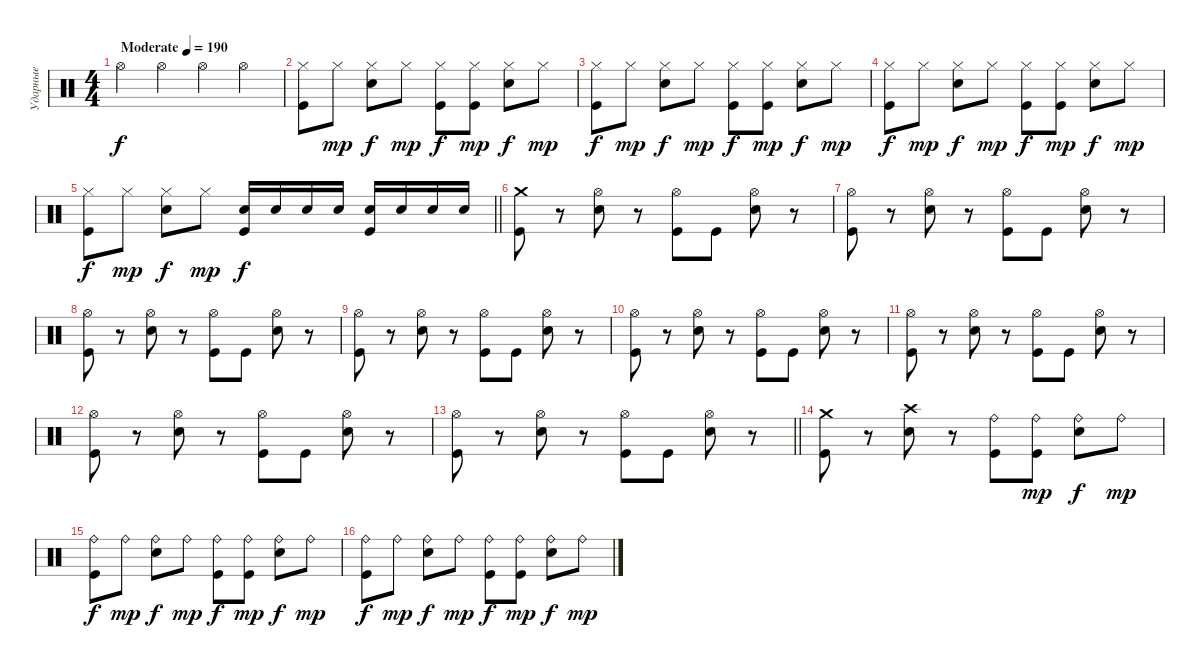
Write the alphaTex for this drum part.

\track ("Ударные" "Ударные") {instrument percussion}
\staff {score}
\articulation defaults
\ts (4 4)
\tempo (190 "Moderate")
\clef neutral
\ks c "Hi-Hat (open)".4{dy f} "Hi-Hat (open)".4 "Hi-Hat (open)".4 "Hi-Hat (open)".4
|
("Hi-Hat (closed)" "Kick (hit)").8 "Hi-Hat (closed)".8{dy mp} ("Hi-Hat (closed)" "Electric Snare (hit)").8{dy f} "Hi-Hat (closed)".8{dy mp} ("Hi-Hat (closed)" "Kick (hit)").8{dy f} ("Hi-Hat (closed)" "Kick (hit)").8{dy mp} ("Hi-Hat (closed)" "Electric Snare (hit)").8{dy f} "Hi-Hat (closed)".8{dy mp} |
("Hi-Hat (closed)" "Kick (hit)").8{dy f} "Hi-Hat (closed)".8{dy mp} ("Hi-Hat (closed)" "Electric Snare (hit)").8{dy f} "Hi-Hat (closed)".8{dy mp} ("Hi-Hat (closed)" "Kick (hit)").8{dy f} ("Hi-Hat (closed)" "Kick (hit)").8{dy mp} ("Hi-Hat (closed)" "Electric Snare (hit)").8{dy f} "Hi-Hat (closed)".8{dy mp} |
("Hi-Hat (closed)" "Kick (hit)").8{dy f} "Hi-Hat (closed)".8{dy mp} ("Hi-Hat (closed)" "Electric Snare (hit)").8{dy f} "Hi-Hat (closed)".8{dy mp} ("Hi-Hat (closed)" "Kick (hit)").8{dy f} ("Hi-Hat (closed)" "Kick (hit)").8{dy mp} ("Hi-Hat (closed)" "Electric Snare (hit)").8{dy f} "Hi-Hat (closed)".8{dy mp} |
\barLineRight lightlight
("Hi-Hat (closed)" "Kick (hit)").8{dy f} "Hi-Hat (closed)".8{dy mp} ("Hi-Hat (closed)" "Electric Snare (hit)").8{dy f} "Hi-Hat (closed)".8{dy mp} ("Electric Snare (hit)" "Kick (hit)").16{dy f} "Electric Snare (hit)".16 "Electric Snare (hit)".16 "Electric Snare (hit)".16 ("Electric Snare (hit)" "Kick (hit)").16 "Electric Snare (hit)".16 "Electric Snare (hit)".16 "Electric Snare (hit)".16 |
\section ("" " ")
("Crash medium (hit)" "Kick (hit)").8 r.8 ("Hi-Hat (open)" "Electric Snare (hit)").8 r.8 ("Hi-Hat (open)" "Kick (hit)").8 "Kick (hit)".8 ("Hi-Hat (open)" "Electric Snare (hit)").8 r.8 |
("Hi-Hat (open)" "Kick (hit)").8 r.8 ("Hi-Hat (open)" "Electric Snare (hit)").8 r.8 ("Hi-Hat (open)" "Kick (hit)").8 "Kick (hit)".8 ("Hi-Hat (open)" "Electric Snare (hit)").8 r.8 |
("Hi-Hat (open)" "Kick (hit)").8 r.8 ("Hi-Hat (open)" "Electric Snare (hit)").8 r.8 ("Hi-Hat (open)" "Kick (hit)").8 "Kick (hit)".8 ("Hi-Hat (open)" "Electric Snare (hit)").8 r.8 |
("Hi-Hat (open)" "Kick (hit)").8 r.8 ("Hi-Hat (open)" "Electric Snare (hit)").8 r.8 ("Hi-Hat (open)" "Kick (hit)").8 "Kick (hit)".8 ("Hi-Hat (open)" "Electric Snare (hit)").8 r.8 |
("Hi-Hat (open)" "Kick (hit)").8 r.8 ("Hi-Hat (open)" "Electric Snare (hit)").8 r.8 ("Hi-Hat (open)" "Kick (hit)").8 "Kick (hit)".8 ("Hi-Hat (open)" "Electric Snare (hit)").8 r.8 |
("Hi-Hat (open)" "Kick (hit)").8 r.8 ("Hi-Hat (open)" "Electric Snare (hit)").8 r.8 ("Hi-Hat (open)" "Kick (hit)").8 "Kick (hit)".8 ("Hi-Hat (open)" "Electric Snare (hit)").8 r.8 |
("Hi-Hat (open)" "Kick (hit)").8 r.8 ("Hi-Hat (open)" "Electric Snare (hit)").8 r.8 ("Hi-Hat (open)" "Kick (hit)").8 "Kick (hit)".8 ("Hi-Hat (open)" "Electric Snare (hit)").8 r.8 |
\barLineRight lightlight
("Hi-Hat (open)" "Kick (hit)").8 r.8 ("Hi-Hat (open)" "Electric Snare (hit)").8 r.8 ("Hi-Hat (open)" "Kick (hit)").8 "Kick (hit)".8 ("Hi-Hat (open)" "Electric Snare (hit)").8 r.8 |
\section ("" " ")
("Crash medium (hit)" "Kick (hit)").8 r.8 ("Crash high (hit)" "Electric Snare (hit)").8 r.8 ("Ride (bell)" "Kick (hit)").8 ("Ride (bell)" "Kick (hit)").8{dy mp} ("Ride (bell)" "Electric Snare (hit)").8{dy f} "Ride (bell)".8{dy mp} |
("Ride (bell)" "Kick (hit)").8{dy f} "Ride (bell)".8{dy mp} ("Ride (bell)" "Electric Snare (hit)").8{dy f} "Ride (bell)".8{dy mp} ("Ride (bell)" "Kick (hit)").8{dy f} ("Ride (bell)" "Kick (hit)").8{dy mp} ("Ride (bell)" "Electric Snare (hit)").8{dy f} "Ride (bell)".8{dy mp} |
("Ride (bell)" "Kick (hit)").8{dy f} "Ride (bell)".8{dy mp} ("Ride (bell)" "Electric Snare (hit)").8{dy f} "Ride (bell)".8{dy mp} ("Ride (bell)" "Kick (hit)").8{dy f} ("Ride (bell)" "Kick (hit)").8{dy mp} ("Ride (bell)" "Electric Snare (hit)").8{dy f} "Ride (bell)".8{dy mp}
